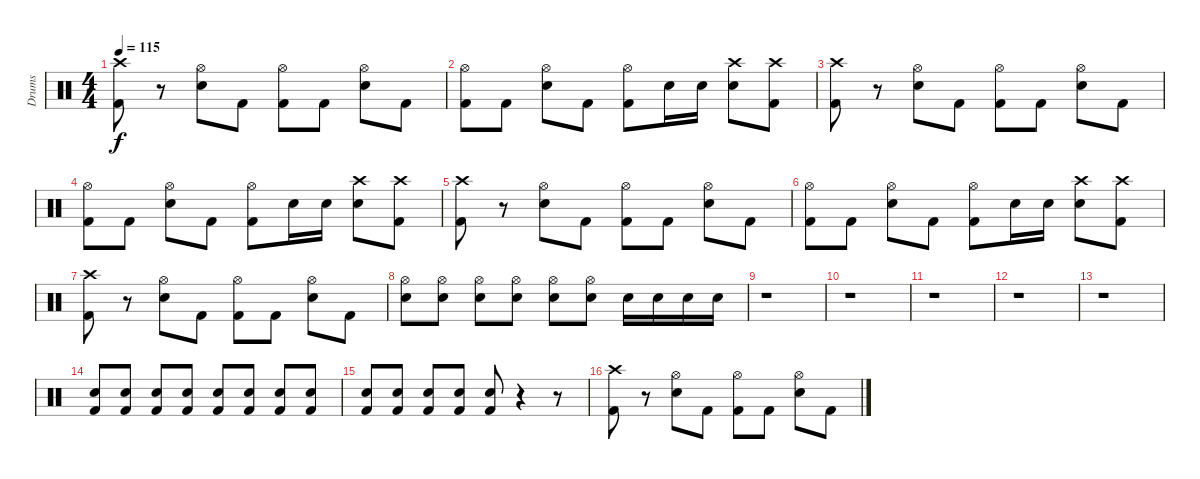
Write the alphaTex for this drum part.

\track ("Drums" "Drums") {instrument percussion}
\staff {score}
\articulation defaults
\ts (4 4)
\tempo 115
\clef neutral
\ks c
("Crash high (hit)" "Kick (hit) 2").8{dy f} r.8 ("Hi-Hat (open)" "Snare (hit) 2").8 "Kick (hit) 2".8 ("Hi-Hat (open)" "Kick (hit) 2").8 "Kick (hit) 2".8 ("Hi-Hat (open)" "Snare (hit) 2").8 "Kick (hit) 2".8 |
("Hi-Hat (open)" "Kick (hit) 2").8 "Kick (hit) 2".8 ("Hi-Hat (open)" "Snare (hit) 2").8 "Kick (hit) 2".8 ("Hi-Hat (open)" "Kick (hit) 2").8 "Snare (hit) 2".16 "Snare (hit) 2".16 ("Crash high (hit)" "Snare (hit) 2").8 ("Crash high (hit)" "Kick (hit) 2").8 |
("Crash high (hit)" "Kick (hit) 2").8 r.8 ("Hi-Hat (open)" "Snare (hit) 2").8 "Kick (hit) 2".8 ("Hi-Hat (open)" "Kick (hit) 2").8 "Kick (hit) 2".8 ("Hi-Hat (open)" "Snare (hit) 2").8 "Kick (hit) 2".8 |
("Hi-Hat (open)" "Kick (hit) 2").8 "Kick (hit) 2".8 ("Hi-Hat (open)" "Snare (hit) 2").8 "Kick (hit) 2".8 ("Hi-Hat (open)" "Kick (hit) 2").8 "Snare (hit) 2".16 "Snare (hit) 2".16 ("Crash high (hit)" "Snare (hit) 2").8 ("Crash high (hit)" "Kick (hit) 2").8 |
("Crash high (hit)" "Kick (hit) 2").8 r.8 ("Hi-Hat (open)" "Snare (hit) 2").8 "Kick (hit) 2".8 ("Hi-Hat (open)" "Kick (hit) 2").8 "Kick (hit) 2".8 ("Hi-Hat (open)" "Snare (hit) 2").8 "Kick (hit) 2".8 |
("Hi-Hat (open)" "Kick (hit) 2").8 "Kick (hit) 2".8 ("Hi-Hat (open)" "Snare (hit) 2").8 "Kick (hit) 2".8 ("Hi-Hat (open)" "Kick (hit) 2").8 "Snare (hit) 2".16 "Snare (hit) 2".16 ("Crash high (hit)" "Snare (hit) 2").8 ("Crash high (hit)" "Kick (hit) 2").8 |
("Crash high (hit)" "Kick (hit) 2").8 r.8 ("Hi-Hat (open)" "Snare (hit) 2").8 "Kick (hit) 2".8 ("Hi-Hat (open)" "Kick (hit) 2").8 "Kick (hit) 2".8 ("Hi-Hat (open)" "Snare (hit) 2").8 "Kick (hit) 2".8 |
("Hi-Hat (open)" "Snare (hit) 2").8 ("Hi-Hat (open)" "Snare (hit) 2").8 ("Hi-Hat (open)" "Snare (hit) 2").8 ("Hi-Hat (open)" "Snare (hit) 2").8 ("Hi-Hat (open)" "Snare (hit) 2").8 ("Hi-Hat (open)" "Snare (hit) 2").8 "Snare (hit) 2".16 "Snare (hit) 2".16 "Snare (hit) 2".16 "Snare (hit) 2".16 |
r.1 |
r.1 |
r.1 |
r.1 |
r.1{volume 0} |
("Snare (hit) 2" "Kick (hit) 2").8{volume 12} ("Snare (hit) 2" "Kick (hit) 2").8 ("Snare (hit) 2" "Kick (hit) 2").8 ("Snare (hit) 2" "Kick (hit) 2").8 ("Snare (hit) 2" "Kick (hit) 2").8 ("Snare (hit) 2" "Kick (hit) 2").8 ("Snare (hit) 2" "Kick (hit) 2").8 ("Snare (hit) 2" "Kick (hit) 2").8 |
("Snare (hit) 2" "Kick (hit) 2").8 ("Snare (hit) 2" "Kick (hit) 2").8 ("Snare (hit) 2" "Kick (hit) 2").8 ("Snare (hit) 2" "Kick (hit) 2").8 ("Snare (hit) 2" "Kick (hit) 2").8 r.4 r.8 |
("Crash high (hit)" "Kick (hit) 2").8 r.8 ("Hi-Hat (open)" "Snare (hit) 2").8 "Kick (hit) 2".8 ("Hi-Hat (open)" "Kick (hit) 2").8 "Kick (hit) 2".8 ("Hi-Hat (open)" "Snare (hit) 2").8 "Kick (hit) 2".8
